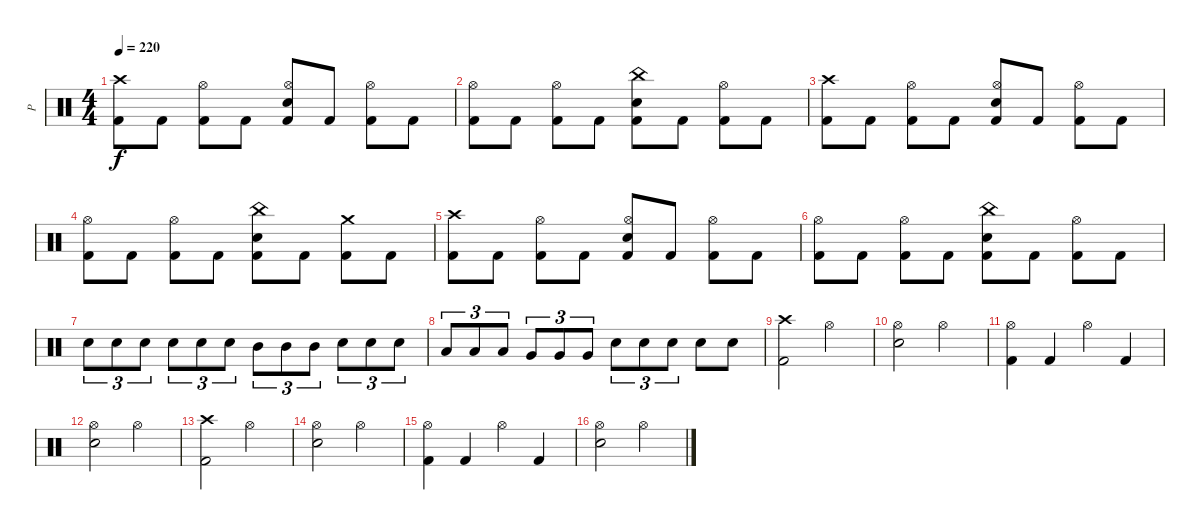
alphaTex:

\track ("P" "P") {instrument percussion}
\staff {score}
\articulation defaults
\ts (4 4)
\tempo 220
\clef neutral
\ks c
("Crash high (hit)" "Kick (hit) 2").8{dy f} "Kick (hit) 2".8 ("Hi-Hat (open)" "Kick (hit) 2").8 "Kick (hit) 2".8 ("Hi-Hat (open)" "Electric Snare (hit)" "Kick (hit) 2").8 "Kick (hit) 2".8 ("Hi-Hat (open)" "Kick (hit) 2").8 "Kick (hit) 2".8 |
("Hi-Hat (open)" "Kick (hit) 2").8 "Kick (hit) 2".8 ("Hi-Hat (open)" "Kick (hit) 2").8 "Kick (hit) 2".8 ("China (hit)" "Electric Snare (hit)" "Kick (hit) 2").8 "Kick (hit) 2".8 ("Hi-Hat (open)" "Kick (hit) 2").8 "Kick (hit) 2".8 |
("Crash high (hit)" "Kick (hit) 2").8 "Kick (hit) 2".8 ("Hi-Hat (open)" "Kick (hit) 2").8 "Kick (hit) 2".8 ("Hi-Hat (open)" "Electric Snare (hit)" "Kick (hit) 2").8 "Kick (hit) 2".8 ("Hi-Hat (open)" "Kick (hit) 2").8 "Kick (hit) 2".8 |
("Hi-Hat (open)" "Kick (hit) 2").8 "Kick (hit) 2".8 ("Hi-Hat (open)" "Kick (hit) 2").8 "Kick (hit) 2".8 ("China (hit)" "Electric Snare (hit)" "Kick (hit) 2").8 "Kick (hit) 2".8 ("Crash medium (hit)" "Kick (hit) 2").8 "Kick (hit) 2".8 |
("Crash high (hit)" "Kick (hit) 2").8 "Kick (hit) 2".8 ("Hi-Hat (open)" "Kick (hit) 2").8 "Kick (hit) 2".8 ("Hi-Hat (open)" "Electric Snare (hit)" "Kick (hit) 2").8 "Kick (hit) 2".8 ("Hi-Hat (open)" "Kick (hit) 2").8 "Kick (hit) 2".8 |
("Hi-Hat (open)" "Kick (hit) 2").8 "Kick (hit) 2".8 ("Hi-Hat (open)" "Kick (hit) 2").8 "Kick (hit) 2".8 ("China (hit)" "Electric Snare (hit)" "Kick (hit) 2").8 "Kick (hit) 2".8 ("Hi-Hat (open)" "Kick (hit) 2").8 "Kick (hit) 2".8 |
"Electric Snare (hit)".8{tu (3 2)} "Electric Snare (hit)".8{tu (3 2)} "Electric Snare (hit)".8{tu (3 2)} "Electric Snare (hit)".8{tu (3 2)} "Electric Snare (hit)".8{tu (3 2)} "Electric Snare (hit)".8{tu (3 2)} "Mid Tom (hit)".8{tu (3 2)} "Mid Tom (hit)".8{tu (3 2)} "Mid Tom (hit)".8{tu (3 2)} "Electric Snare (hit)".8{tu (3 2)} "Electric Snare (hit)".8{tu (3 2)} "Electric Snare (hit)".8{tu (3 2)} |
"Low Tom (hit)".8{tu (3 2)} "Low Tom (hit)".8{tu (3 2)} "Low Tom (hit)".8{tu (3 2)} "Very Low Tom (hit)".8{tu (3 2)} "Very Low Tom (hit)".8{tu (3 2)} "Very Low Tom (hit)".8{tu (3 2)} "Electric Snare (hit)".8{tu (3 2)} "Electric Snare (hit)".8{tu (3 2)} "Electric Snare (hit)".8{tu (3 2)} "Electric Snare (hit)".8 "Electric Snare (hit)".8 |
("Crash high (hit)" "Kick (hit) 2").2 "Hi-Hat (open)".2 |
("Hi-Hat (open)" "Electric Snare (hit)").2 "Hi-Hat (open)".2 |
("Hi-Hat (open)" "Kick (hit) 2").4 "Kick (hit) 2".4 "Hi-Hat (open)".4 "Kick (hit) 2".4 |
("Hi-Hat (open)" "Electric Snare (hit)").2 "Hi-Hat (open)".2 |
("Crash high (hit)" "Kick (hit) 2").2 "Hi-Hat (open)".2 |
("Hi-Hat (open)" "Electric Snare (hit)").2 "Hi-Hat (open)".2 |
("Hi-Hat (open)" "Kick (hit) 2").4 "Kick (hit) 2".4 "Hi-Hat (open)".4 "Kick (hit) 2".4 |
("Hi-Hat (open)" "Electric Snare (hit)").2 "Hi-Hat (open)".2
